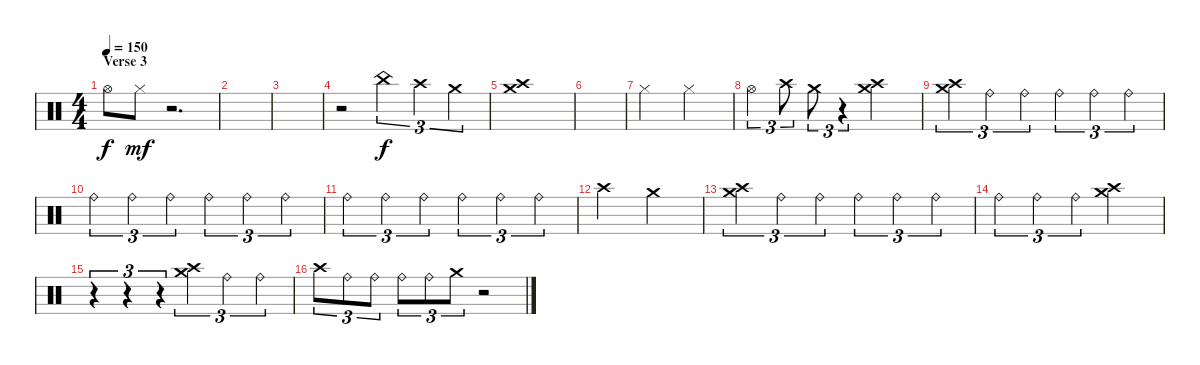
\track "" {instrument percussion}
\staff {score}
\articulation defaults
\ts (4 4)
\section ("" "Verse 3")
\tempo 150
\clef neutral
\ks c "Hi-Hat (open)".8{dy f} "Hi-Hat (closed)".8{dy mf}
r.2{d} |
|
|
r.2 "China (hit)".4{tu (3 2) dy f} "Crash high (hit)".4{tu (3 2)} "Crash medium (hit)".4{tu (3 2)} |
("Crash high (hit)" "Crash medium (hit)").1 |
|
"Hi-Hat (closed)".2 "Hi-Hat (closed)".2 |
"Hi-Hat (open)".4{tu (3 2)} "Crash high (hit)".8{tu (3 2)} "Crash medium (hit)".8{tu (3 2)} r.4{tu (3 2)} ("Crash medium (hit)" "Crash high (hit)").2 |
("Crash medium (hit)" "Crash high (hit)").4{tu (3 2)} "Ride (bell)".4{tu (3 2)} "Ride (bell)".4{tu (3 2)} "Ride (bell)".4{tu (3 2)} "Ride (bell)".4{tu (3 2)} "Ride (bell)".4{tu (3 2)} |
"Ride (bell)".4{tu (3 2)} "Ride (bell)".4{tu (3 2)} "Ride (bell)".4{tu (3 2)} "Ride (bell)".4{tu (3 2)} "Ride (bell)".4{tu (3 2)} "Ride (bell)".4{tu (3 2)} |
"Ride (bell)".4{tu (3 2)} "Ride (bell)".4{tu (3 2)} "Ride (bell)".4{tu (3 2)} "Ride (bell)".4{tu (3 2)} "Ride (bell)".4{tu (3 2)} "Ride (bell)".4{tu (3 2)} |
"Crash high (hit)".2 "Crash medium (hit)".2 |
("Crash medium (hit)" "Crash high (hit)").4{tu (3 2)} "Ride (bell)".4{tu (3 2)} "Ride (bell)".4{tu (3 2)} "Ride (bell)".4{tu (3 2)} "Ride (bell)".4{tu (3 2)} "Ride (bell)".4{tu (3 2)} |
"Ride (bell)".4{tu (3 2)} "Ride (bell)".4{tu (3 2)} "Ride (bell)".4{tu (3 2)} ("Crash medium (hit)" "Crash high (hit)").2 |
r.4{tu (3 2)} r.4{tu (3 2)} r.4{tu (3 2)} ("Crash medium (hit)" "Crash high (hit)").4{tu (3 2)} "Ride (bell)".4{tu (3 2)} "Ride (bell)".4{tu (3 2)} |
"Crash high (hit)".8{tu (3 2)} "Ride (bell)".8{tu (3 2)} "Ride (bell)".8{tu (3 2)} "Ride (bell)".8{tu (3 2)} "Ride (bell)".8{tu (3 2)} "Crash medium (hit)".8{tu (3 2)} r.2
